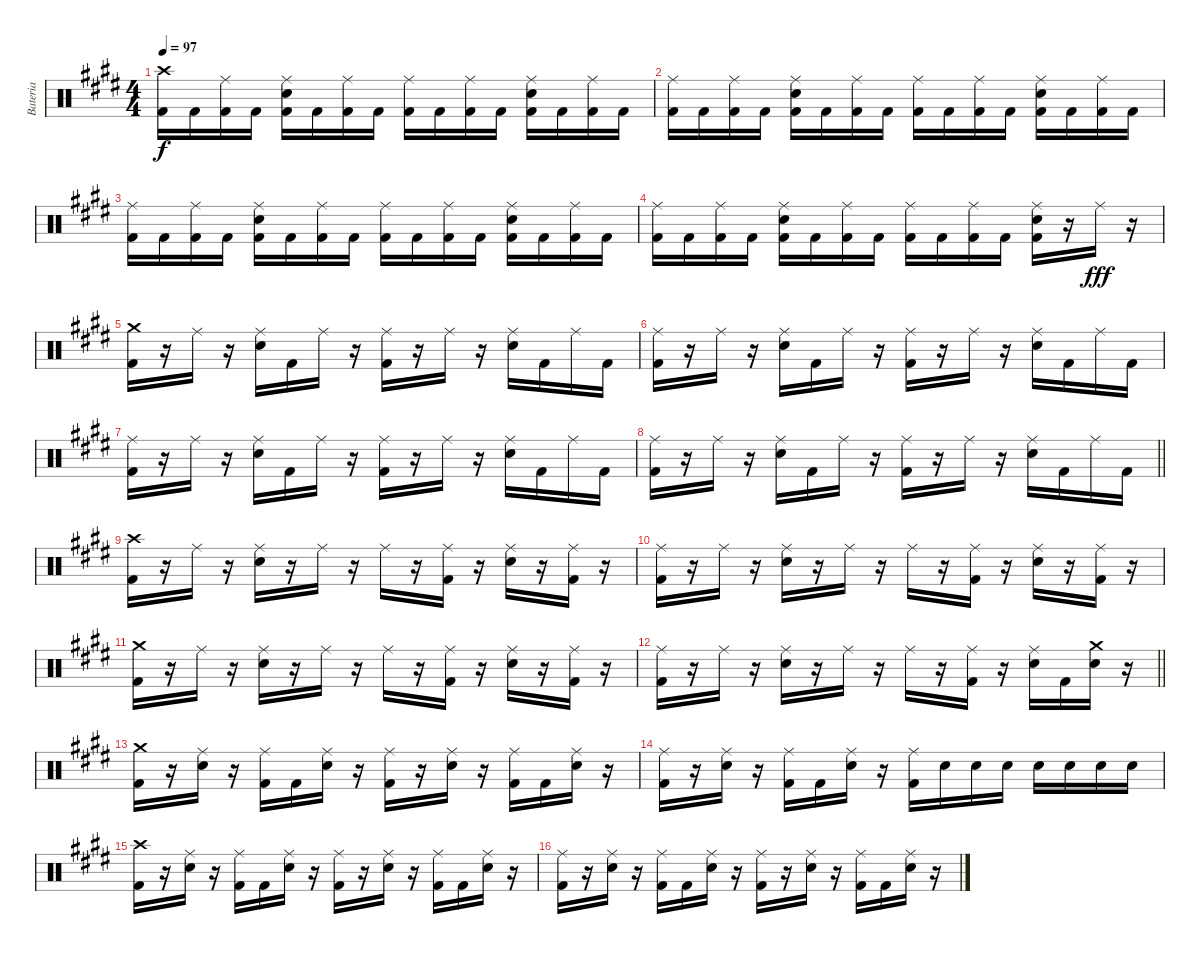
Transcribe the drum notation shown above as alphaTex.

\track ("Bateria" "Bateria") {instrument percussion}
\staff {score}
\articulation defaults
\ts (4 4)
\tempo 97
\clef neutral
\ks e
("Crash high (hit)" "Kick (hit) 2").16{dy f} "Kick (hit) 2".16 ("Ride (middle)" "Kick (hit) 2").16 "Kick (hit) 2".16 ("Ride (middle)" "Kick (hit) 2" "Electric Snare (hit)").16 "Kick (hit) 2".16 ("Ride (middle)" "Kick (hit) 2").16 "Kick (hit) 2".16 ("Ride (middle)" "Kick (hit) 2").16 "Kick (hit) 2".16 ("Ride (middle)" "Kick (hit) 2").16 "Kick (hit) 2".16 ("Ride (middle)" "Kick (hit) 2" "Electric Snare (hit)").16 "Kick (hit) 2".16 ("Ride (middle)" "Kick (hit) 2").16 "Kick (hit) 2".16 |
("Ride (middle)" "Kick (hit) 2").16 "Kick (hit) 2".16 ("Ride (middle)" "Kick (hit) 2").16 "Kick (hit) 2".16 ("Ride (middle)" "Kick (hit) 2" "Electric Snare (hit)").16 "Kick (hit) 2".16 ("Ride (middle)" "Kick (hit) 2").16 "Kick (hit) 2".16 ("Ride (middle)" "Kick (hit) 2").16 "Kick (hit) 2".16 ("Ride (middle)" "Kick (hit) 2").16 "Kick (hit) 2".16 ("Ride (middle)" "Kick (hit) 2" "Electric Snare (hit)").16 "Kick (hit) 2".16 ("Ride (middle)" "Kick (hit) 2").16 "Kick (hit) 2".16 |
("Ride (middle)" "Kick (hit) 2").16 "Kick (hit) 2".16 ("Ride (middle)" "Kick (hit) 2").16 "Kick (hit) 2".16 ("Ride (middle)" "Kick (hit) 2" "Electric Snare (hit)").16 "Kick (hit) 2".16 ("Ride (middle)" "Kick (hit) 2").16 "Kick (hit) 2".16 ("Ride (middle)" "Kick (hit) 2").16 "Kick (hit) 2".16 ("Ride (middle)" "Kick (hit) 2").16 "Kick (hit) 2".16 ("Ride (middle)" "Kick (hit) 2" "Electric Snare (hit)").16 "Kick (hit) 2".16 ("Ride (middle)" "Kick (hit) 2").16 "Kick (hit) 2".16 |
("Ride (middle)" "Kick (hit) 2").16 "Kick (hit) 2".16 ("Ride (middle)" "Kick (hit) 2").16 "Kick (hit) 2".16 ("Ride (middle)" "Kick (hit) 2" "Electric Snare (hit)").16 "Kick (hit) 2".16 ("Ride (middle)" "Kick (hit) 2").16 "Kick (hit) 2".16 ("Ride (middle)" "Kick (hit) 2").16 "Kick (hit) 2".16 ("Ride (middle)" "Kick (hit) 2").16 "Kick (hit) 2".16 ("Ride (middle)" "Kick (hit) 2" "Electric Snare (hit)").16 r.16 "Ride (middle)".16{dy fff} r.16 |
("Crash medium (hit)" "Kick (hit) 2").16 r.16 "Ride (middle)".16 r.16 ("Ride (middle)" "Electric Snare (hit)").16 "Kick (hit) 2".16 "Ride (middle)".16 r.16 ("Ride (middle)" "Kick (hit) 2").16 r.16 "Ride (middle)".16 r.16 ("Ride (middle)" "Electric Snare (hit)").16 "Kick (hit) 2".16 "Ride (middle)".16 "Kick (hit) 2".16 |
("Ride (middle)" "Kick (hit) 2").16 r.16 "Ride (middle)".16 r.16 ("Ride (middle)" "Electric Snare (hit)").16 "Kick (hit) 2".16 "Ride (middle)".16 r.16 ("Ride (middle)" "Kick (hit) 2").16 r.16 "Ride (middle)".16 r.16 ("Ride (middle)" "Electric Snare (hit)").16 "Kick (hit) 2".16 "Ride (middle)".16 "Kick (hit) 2".16 |
("Ride (middle)" "Kick (hit) 2").16 r.16 "Ride (middle)".16 r.16 ("Ride (middle)" "Electric Snare (hit)").16 "Kick (hit) 2".16 "Ride (middle)".16 r.16 ("Ride (middle)" "Kick (hit) 2").16 r.16 "Ride (middle)".16 r.16 ("Ride (middle)" "Electric Snare (hit)").16 "Kick (hit) 2".16 "Ride (middle)".16 "Kick (hit) 2".16 |
\barLineRight lightlight
("Ride (middle)" "Kick (hit) 2").16 r.16 "Ride (middle)".16 r.16 ("Ride (middle)" "Electric Snare (hit)").16 "Kick (hit) 2".16 "Ride (middle)".16 r.16 ("Ride (middle)" "Kick (hit) 2").16 r.16 "Ride (middle)".16 r.16 ("Ride (middle)" "Electric Snare (hit)").16 "Kick (hit) 2".16 "Ride (middle)".16 "Kick (hit) 2".16 |
("Crash high (hit)" "Kick (hit) 2").16 r.16 "Ride (middle)".16 r.16 ("Ride (middle)" "Electric Snare (hit)").16 r.16 "Ride (middle)".16 r.16 "Ride (middle)".16 r.16 ("Ride (middle)" "Kick (hit) 2").16 r.16 ("Ride (middle)" "Electric Snare (hit)").16 r.16 ("Ride (middle)" "Kick (hit) 2").16 r.16 |
("Ride (middle)" "Kick (hit) 2").16 r.16 "Ride (middle)".16 r.16 ("Ride (middle)" "Electric Snare (hit)").16 r.16 "Ride (middle)".16 r.16 "Ride (middle)".16 r.16 ("Ride (middle)" "Kick (hit) 2").16 r.16 ("Ride (middle)" "Electric Snare (hit)").16 r.16 ("Ride (middle)" "Kick (hit) 2").16 r.16 |
("Crash medium (hit)" "Kick (hit) 2").16 r.16 "Ride (middle)".16 r.16 ("Ride (middle)" "Electric Snare (hit)").16 r.16 "Ride (middle)".16 r.16 "Ride (middle)".16 r.16 ("Ride (middle)" "Kick (hit) 2").16 r.16 ("Ride (middle)" "Electric Snare (hit)").16 r.16 ("Ride (middle)" "Kick (hit) 2").16 r.16 |
\barLineRight lightlight
("Ride (middle)" "Kick (hit) 2").16 r.16 "Ride (middle)".16 r.16 ("Ride (middle)" "Electric Snare (hit)").16 r.16 "Ride (middle)".16 r.16 "Ride (middle)".16 r.16 ("Ride (middle)" "Kick (hit) 2").16 r.16 ("Ride (middle)" "Electric Snare (hit)").16 "Kick (hit) 2".16 ("Crash medium (hit)" "Electric Snare (hit)").16 r.16 |
("Kick (hit) 2" "Crash medium (hit)").16 r.16 ("Electric Snare (hit)" "Ride (middle)").16 r.16 ("Kick (hit) 2" "Ride (middle)").16 "Kick (hit) 2".16 ("Electric Snare (hit)" "Ride (middle)").16 r.16 ("Kick (hit) 2" "Ride (middle)").16 r.16 ("Electric Snare (hit)" "Ride (middle)").16 r.16 ("Kick (hit) 2" "Ride (middle)").16 "Kick (hit) 2".16 ("Electric Snare (hit)" "Ride (middle)").16 r.16 |
("Kick (hit) 2" "Ride (middle)").16 r.16 ("Electric Snare (hit)" "Ride (middle)").16 r.16 ("Kick (hit) 2" "Ride (middle)").16 "Kick (hit) 2".16 ("Electric Snare (hit)" "Ride (middle)").16 r.16 ("Kick (hit) 2" "Ride (middle)").16 "Electric Snare (hit)".16 "Electric Snare (hit)".16 "Electric Snare (hit)".16 "Electric Snare (hit)".16 "Electric Snare (hit)".16 "Electric Snare (hit)".16 "Electric Snare (hit)".16 |
("Crash high (hit)" "Kick (hit) 2").16 r.16 ("Ride (middle)" "Electric Snare (hit)").16 r.16 ("Ride (middle)" "Kick (hit) 2").16 "Kick (hit) 2".16 ("Ride (middle)" "Electric Snare (hit)").16 r.16 ("Ride (middle)" "Kick (hit) 2").16 r.16 ("Ride (middle)" "Electric Snare (hit)").16 r.16 ("Ride (middle)" "Kick (hit) 2").16 "Kick (hit) 2".16 ("Ride (middle)" "Electric Snare (hit)").16 r.16 |
("Ride (middle)" "Kick (hit) 2").16 r.16 ("Ride (middle)" "Electric Snare (hit)").16 r.16 ("Ride (middle)" "Kick (hit) 2").16 "Kick (hit) 2".16 ("Ride (middle)" "Electric Snare (hit)").16 r.16 ("Ride (middle)" "Kick (hit) 2").16 r.16 ("Ride (middle)" "Electric Snare (hit)").16 r.16 ("Ride (middle)" "Kick (hit) 2").16 "Kick (hit) 2".16 ("Ride (middle)" "Electric Snare (hit)").16 r.16
